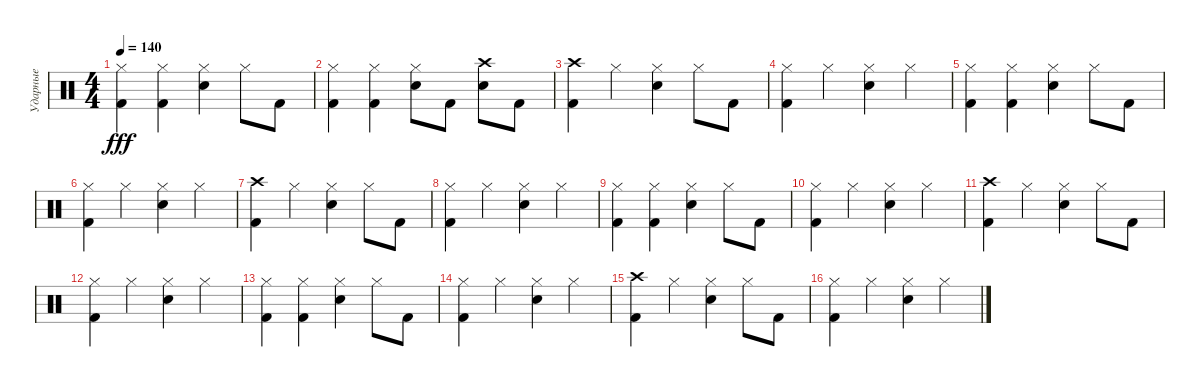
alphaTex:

\track ("Ударные" "Ударные") {instrument percussion}
\staff {score}
\articulation defaults
\ts (4 4)
\tempo 140
\clef neutral
\ks c
("Kick (hit) 2" "Hi-Hat (closed)").4{dy fff} ("Kick (hit) 2" "Hi-Hat (closed)").4 ("Electric Snare (hit)" "Hi-Hat (closed)").4 "Hi-Hat (closed)".8 "Kick (hit) 2".8 |
("Kick (hit) 2" "Hi-Hat (closed)").4 ("Kick (hit) 2" "Hi-Hat (closed)").4 ("Electric Snare (hit)" "Hi-Hat (closed)").8 "Kick (hit) 2".8 ("Electric Snare (hit)" "Crash high (hit)").8 "Kick (hit) 2".8 |
("Kick (hit) 2" "Crash high (hit)").4 "Hi-Hat (closed)".4 ("Electric Snare (hit)" "Hi-Hat (closed)").4 "Hi-Hat (closed)".8 "Kick (hit) 2".8 |
("Kick (hit) 2" "Hi-Hat (closed)").4 "Hi-Hat (closed)".4 ("Electric Snare (hit)" "Hi-Hat (closed)").4 "Hi-Hat (closed)".4 |
("Kick (hit) 2" "Hi-Hat (closed)").4 ("Kick (hit) 2" "Hi-Hat (closed)").4 ("Electric Snare (hit)" "Hi-Hat (closed)").4 "Hi-Hat (closed)".8 "Kick (hit) 2".8 |
("Kick (hit) 2" "Hi-Hat (closed)").4 "Hi-Hat (closed)".4 ("Electric Snare (hit)" "Hi-Hat (closed)").4 "Hi-Hat (closed)".4 |
("Kick (hit) 2" "Crash high (hit)").4 "Hi-Hat (closed)".4 ("Electric Snare (hit)" "Hi-Hat (closed)").4 "Hi-Hat (closed)".8 "Kick (hit) 2".8 |
("Kick (hit) 2" "Hi-Hat (closed)").4 "Hi-Hat (closed)".4 ("Electric Snare (hit)" "Hi-Hat (closed)").4 "Hi-Hat (closed)".4 |
("Hi-Hat (closed)" "Kick (hit) 2").4 ("Kick (hit) 2" "Hi-Hat (closed)").4 ("Electric Snare (hit)" "Hi-Hat (closed)").4 "Hi-Hat (closed)".8 "Kick (hit) 2".8 |
("Kick (hit) 2" "Hi-Hat (closed)").4 "Hi-Hat (closed)".4 ("Electric Snare (hit)" "Hi-Hat (closed)").4 "Hi-Hat (closed)".4 |
("Kick (hit) 2" "Crash high (hit)").4 "Hi-Hat (closed)".4 ("Electric Snare (hit)" "Hi-Hat (closed)").4 "Hi-Hat (closed)".8 "Kick (hit) 2".8 |
("Kick (hit) 2" "Hi-Hat (closed)").4 "Hi-Hat (closed)".4 ("Electric Snare (hit)" "Hi-Hat (closed)").4 "Hi-Hat (closed)".4 |
("Hi-Hat (closed)" "Kick (hit) 2").4 ("Kick (hit) 2" "Hi-Hat (closed)").4 ("Electric Snare (hit)" "Hi-Hat (closed)").4 "Hi-Hat (closed)".8 "Kick (hit) 2".8 |
("Kick (hit) 2" "Hi-Hat (closed)").4 "Hi-Hat (closed)".4 ("Electric Snare (hit)" "Hi-Hat (closed)").4 "Hi-Hat (closed)".4 |
("Kick (hit) 2" "Crash high (hit)").4 "Hi-Hat (closed)".4 ("Electric Snare (hit)" "Hi-Hat (closed)").4 "Hi-Hat (closed)".8 "Kick (hit) 2".8 |
("Kick (hit) 2" "Hi-Hat (closed)").4 "Hi-Hat (closed)".4 ("Electric Snare (hit)" "Hi-Hat (closed)").4 "Hi-Hat (closed)".4
